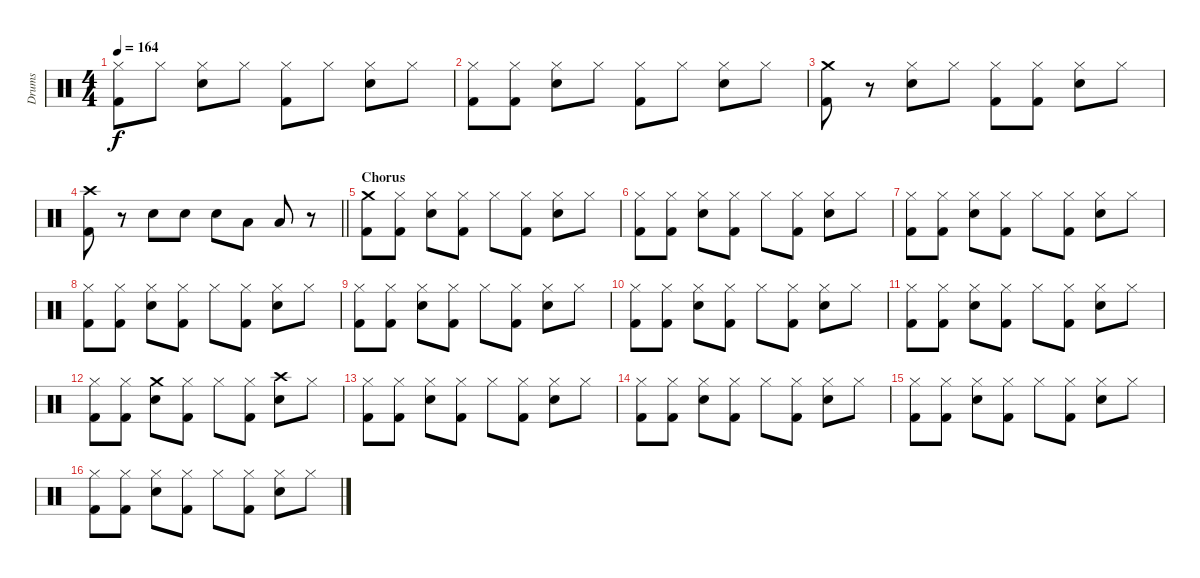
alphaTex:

\track ("Drums" "Drums") {instrument percussion}
\staff {score}
\articulation defaults
\ts (4 4)
\tempo 164
\clef neutral
\ks c
("Hi-Hat (closed)" "Kick (hit) 2").8{dy f} "Hi-Hat (closed)".8 ("Hi-Hat (closed)" "Snare (hit) 2").8 "Hi-Hat (closed)".8 ("Hi-Hat (closed)" "Kick (hit) 2").8 "Hi-Hat (closed)".8 ("Hi-Hat (closed)" "Snare (hit) 2").8 "Hi-Hat (closed)".8 |
("Hi-Hat (closed)" "Kick (hit) 2").8 ("Hi-Hat (closed)" "Kick (hit) 2").8 ("Hi-Hat (closed)" "Snare (hit) 2").8 "Hi-Hat (closed)".8 ("Hi-Hat (closed)" "Kick (hit) 2").8 "Hi-Hat (closed)".8 ("Hi-Hat (closed)" "Snare (hit) 2").8 "Hi-Hat (closed)".8 |
("Crash medium (hit)" "Kick (hit) 2").8 r.8 ("Hi-Hat (closed)" "Snare (hit) 2").8 "Hi-Hat (closed)".8 ("Hi-Hat (closed)" "Kick (hit) 2").8 ("Hi-Hat (closed)" "Kick (hit) 2").8 ("Hi-Hat (closed)" "Snare (hit) 2").8 "Hi-Hat (closed)".8 |
\barLineRight lightlight
("Crash high (hit)" "Kick (hit) 2").8 r.8 "Snare (hit) 2".8 "Snare (hit) 2".8 "Snare (hit) 2".8 "Low Tom (hit)".8 "Low Tom (hit)".8 r.8 |
\section ("" "Chorus")
("Crash medium (hit)" "Kick (hit) 2").8 ("Hi-Hat (closed)" "Kick (hit) 2").8 ("Hi-Hat (closed)" "Snare (hit) 2").8 ("Hi-Hat (closed)" "Kick (hit) 2").8 "Hi-Hat (closed)".8 ("Hi-Hat (closed)" "Kick (hit) 2").8 ("Hi-Hat (closed)" "Snare (hit) 2").8 "Hi-Hat (closed)".8 |
("Hi-Hat (closed)" "Kick (hit) 2").8 ("Hi-Hat (closed)" "Kick (hit) 2").8 ("Hi-Hat (closed)" "Snare (hit) 2").8 ("Hi-Hat (closed)" "Kick (hit) 2").8 "Hi-Hat (closed)".8 ("Hi-Hat (closed)" "Kick (hit) 2").8 ("Hi-Hat (closed)" "Snare (hit) 2").8 "Hi-Hat (closed)".8 |
("Hi-Hat (closed)" "Kick (hit) 2").8 ("Hi-Hat (closed)" "Kick (hit) 2").8 ("Hi-Hat (closed)" "Snare (hit) 2").8 ("Hi-Hat (closed)" "Kick (hit) 2").8 "Hi-Hat (closed)".8 ("Hi-Hat (closed)" "Kick (hit) 2").8 ("Hi-Hat (closed)" "Snare (hit) 2").8 "Hi-Hat (closed)".8 |
("Hi-Hat (closed)" "Kick (hit) 2").8 ("Hi-Hat (closed)" "Kick (hit) 2").8 ("Hi-Hat (closed)" "Snare (hit) 2").8 ("Hi-Hat (closed)" "Kick (hit) 2").8 "Hi-Hat (closed)".8 ("Hi-Hat (closed)" "Kick (hit) 2").8 ("Hi-Hat (closed)" "Snare (hit) 2").8 "Hi-Hat (closed)".8 |
("Hi-Hat (closed)" "Kick (hit) 2").8 ("Hi-Hat (closed)" "Kick (hit) 2").8 ("Hi-Hat (closed)" "Snare (hit) 2").8 ("Hi-Hat (closed)" "Kick (hit) 2").8 "Hi-Hat (closed)".8 ("Hi-Hat (closed)" "Kick (hit) 2").8 ("Hi-Hat (closed)" "Snare (hit) 2").8 "Hi-Hat (closed)".8 |
("Hi-Hat (closed)" "Kick (hit) 2").8 ("Hi-Hat (closed)" "Kick (hit) 2").8 ("Hi-Hat (closed)" "Snare (hit) 2").8 ("Hi-Hat (closed)" "Kick (hit) 2").8 "Hi-Hat (closed)".8 ("Hi-Hat (closed)" "Kick (hit) 2").8 ("Hi-Hat (closed)" "Snare (hit) 2").8 "Hi-Hat (closed)".8 |
("Hi-Hat (closed)" "Kick (hit) 2").8 ("Hi-Hat (closed)" "Kick (hit) 2").8 ("Hi-Hat (closed)" "Snare (hit) 2").8 ("Hi-Hat (closed)" "Kick (hit) 2").8 "Hi-Hat (closed)".8 ("Hi-Hat (closed)" "Kick (hit) 2").8 ("Hi-Hat (closed)" "Snare (hit) 2").8 "Hi-Hat (closed)".8 |
("Hi-Hat (closed)" "Kick (hit) 2").8 ("Hi-Hat (closed)" "Kick (hit) 2").8 ("Crash medium (hit)" "Snare (hit) 2").8 ("Hi-Hat (closed)" "Kick (hit) 2").8 "Hi-Hat (closed)".8 ("Hi-Hat (closed)" "Kick (hit) 2").8 ("Crash high (hit)" "Snare (hit) 2").8 "Hi-Hat (closed)".8 |
("Hi-Hat (closed)" "Kick (hit) 2").8 ("Hi-Hat (closed)" "Kick (hit) 2").8 ("Hi-Hat (closed)" "Snare (hit) 2").8 ("Hi-Hat (closed)" "Kick (hit) 2").8 "Hi-Hat (closed)".8 ("Hi-Hat (closed)" "Kick (hit) 2").8 ("Hi-Hat (closed)" "Snare (hit) 2").8 "Hi-Hat (closed)".8 |
("Hi-Hat (closed)" "Kick (hit) 2").8 ("Hi-Hat (closed)" "Kick (hit) 2").8 ("Hi-Hat (closed)" "Snare (hit) 2").8 ("Hi-Hat (closed)" "Kick (hit) 2").8 "Hi-Hat (closed)".8 ("Hi-Hat (closed)" "Kick (hit) 2").8 ("Hi-Hat (closed)" "Snare (hit) 2").8 "Hi-Hat (closed)".8 |
("Hi-Hat (closed)" "Kick (hit) 2").8 ("Hi-Hat (closed)" "Kick (hit) 2").8 ("Hi-Hat (closed)" "Snare (hit) 2").8 ("Hi-Hat (closed)" "Kick (hit) 2").8 "Hi-Hat (closed)".8 ("Hi-Hat (closed)" "Kick (hit) 2").8 ("Hi-Hat (closed)" "Snare (hit) 2").8 "Hi-Hat (closed)".8 |
("Hi-Hat (closed)" "Kick (hit) 2").8 ("Hi-Hat (closed)" "Kick (hit) 2").8 ("Hi-Hat (closed)" "Snare (hit) 2").8 ("Hi-Hat (closed)" "Kick (hit) 2").8 "Hi-Hat (closed)".8 ("Hi-Hat (closed)" "Kick (hit) 2").8 ("Hi-Hat (closed)" "Snare (hit) 2").8 "Hi-Hat (closed)".8
